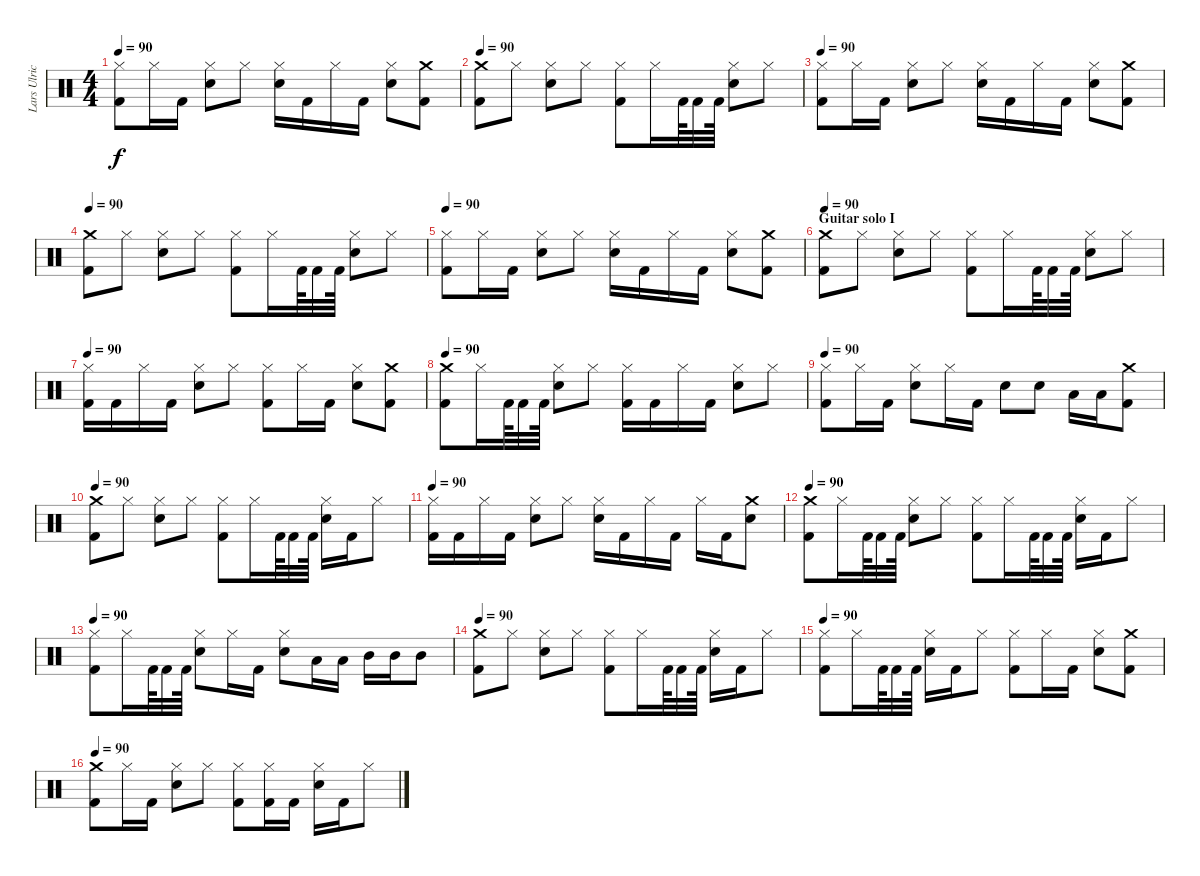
\track ("Lars Ulrich (Drums)" "Lars Ulric") {instrument percussion}
\staff {score}
\articulation defaults
\ts (4 4)
\tempo 90
\clef neutral
\ks c
("Hi-Hat (closed)" "Kick (hit) 2").8{dy f} "Hi-Hat (closed)".16 "Kick (hit) 2".16 ("Snare (hit) 2" "Hi-Hat (closed)").8 "Hi-Hat (closed)".8 ("Snare (hit) 2" "Hi-Hat (closed)").16 "Kick (hit) 2".16 "Hi-Hat (closed)".16 "Kick (hit) 2".16 ("Snare (hit) 2" "Hi-Hat (closed)").8 ("Crash medium (hit)" "Kick (hit) 2").8 |
\tempo 90
("Crash medium (hit)" "Kick (hit) 2").8 "Hi-Hat (closed)".8 ("Snare (hit) 2" "Hi-Hat (closed)").8 "Hi-Hat (closed)".8 ("Hi-Hat (closed)" "Kick (hit) 2").8 "Hi-Hat (closed)".16 "Kick (hit) 2".64 "Kick (hit) 2".32 "Kick (hit) 2".64 ("Snare (hit) 2" "Hi-Hat (closed)").8 "Hi-Hat (closed)".8 |
\tempo 90
("Hi-Hat (closed)" "Kick (hit) 2").8 "Hi-Hat (closed)".16 "Kick (hit) 2".16 ("Snare (hit) 2" "Hi-Hat (closed)").8 "Hi-Hat (closed)".8 ("Snare (hit) 2" "Hi-Hat (closed)").16 "Kick (hit) 2".16 "Hi-Hat (closed)".16 "Kick (hit) 2".16 ("Snare (hit) 2" "Hi-Hat (closed)").8 ("Crash medium (hit)" "Kick (hit) 2").8 |
\tempo 90
("Crash medium (hit)" "Kick (hit) 2").8 "Hi-Hat (closed)".8 ("Snare (hit) 2" "Hi-Hat (closed)").8 "Hi-Hat (closed)".8 ("Hi-Hat (closed)" "Kick (hit) 2").8 "Hi-Hat (closed)".16 "Kick (hit) 2".64 "Kick (hit) 2".32 "Kick (hit) 2".64 ("Snare (hit) 2" "Hi-Hat (closed)").8 "Hi-Hat (closed)".8 |
\tempo 90
("Hi-Hat (closed)" "Kick (hit) 2").8 "Hi-Hat (closed)".16 "Kick (hit) 2".16 ("Snare (hit) 2" "Hi-Hat (closed)").8 "Hi-Hat (closed)".8 ("Snare (hit) 2" "Hi-Hat (closed)").16 "Kick (hit) 2".16 "Hi-Hat (closed)".16 "Kick (hit) 2".16 ("Snare (hit) 2" "Hi-Hat (closed)").8 ("Crash medium (hit)" "Kick (hit) 2").8 |
\section ("" "Guitar solo I")
\tempo 90
("Kick (hit) 2" "Crash medium (hit)").8 "Hi-Hat (closed)".8 ("Snare (hit) 2" "Hi-Hat (closed)").8 "Hi-Hat (closed)".8 ("Hi-Hat (closed)" "Kick (hit) 2").8 "Hi-Hat (closed)".16 "Kick (hit) 2".64 "Kick (hit) 2".32 "Kick (hit) 2".64 ("Snare (hit) 2" "Hi-Hat (closed)").8 "Hi-Hat (closed)".8 |
\tempo 90
("Kick (hit) 2" "Hi-Hat (closed)").16 "Kick (hit) 2".16 "Hi-Hat (closed)".16 "Kick (hit) 2".16 ("Snare (hit) 2" "Hi-Hat (closed)").8 "Hi-Hat (closed)".8 ("Kick (hit) 2" "Hi-Hat (closed)").8 "Hi-Hat (closed)".16 "Kick (hit) 2".16 ("Snare (hit) 2" "Hi-Hat (closed)").8 ("Kick (hit) 2" "Crash medium (hit)").8 |
\tempo 90
("Crash medium (hit)" "Kick (hit) 2").8 "Hi-Hat (closed)".16 "Kick (hit) 2".64 "Kick (hit) 2".32 "Kick (hit) 2".64 ("Snare (hit) 2" "Hi-Hat (closed)").8 "Hi-Hat (closed)".8 ("Kick (hit) 2" "Hi-Hat (closed)").16 "Kick (hit) 2".16 "Hi-Hat (closed)".16 "Kick (hit) 2".16 ("Snare (hit) 2" "Hi-Hat (closed)").8 "Hi-Hat (closed)".8 |
\tempo 90
("Kick (hit) 2" "Hi-Hat (closed)").8 "Hi-Hat (closed)".16 "Kick (hit) 2".16 ("Snare (hit) 2" "Hi-Hat (closed)").8 "Hi-Hat (closed)".16 "Kick (hit) 2".16 "Snare (hit) 2".8 "Snare (hit) 2".8 "Low Tom (hit)".16 "Low Tom (hit)".16 ("Crash medium (hit)" "Kick (hit) 2").8 |
\tempo 90
("Crash medium (hit)" "Kick (hit) 2").8 "Hi-Hat (closed)".8 ("Snare (hit) 2" "Hi-Hat (closed)").8 "Hi-Hat (closed)".8 ("Hi-Hat (closed)" "Kick (hit) 2").8 "Hi-Hat (closed)".16 "Kick (hit) 2".64 "Kick (hit) 2".32 "Kick (hit) 2".64 ("Snare (hit) 2" "Hi-Hat (closed)").16 "Kick (hit) 2".16 "Hi-Hat (closed)".8 |
\tempo 90
("Kick (hit) 2" "Hi-Hat (closed)").16 "Kick (hit) 2".16 "Hi-Hat (closed)".16 "Kick (hit) 2".16 ("Snare (hit) 2" "Hi-Hat (closed)").8 "Hi-Hat (closed)".8 ("Hi-Hat (closed)" "Snare (hit) 2").16 "Kick (hit) 2".16 "Hi-Hat (closed)".16 "Kick (hit) 2".16 "Hi-Hat (closed)".16 "Kick (hit) 2".16 ("Crash medium (hit)" "Snare (hit) 2").8 |
\tempo 90
("Crash medium (hit)" "Kick (hit) 2").8 "Hi-Hat (closed)".16 "Kick (hit) 2".64 "Kick (hit) 2".32 "Kick (hit) 2".64 ("Snare (hit) 2" "Hi-Hat (closed)").8 "Hi-Hat (closed)".8 ("Hi-Hat (closed)" "Kick (hit) 2").8 "Hi-Hat (closed)".16 "Kick (hit) 2".64 "Kick (hit) 2".32 "Kick (hit) 2".64 ("Snare (hit) 2" "Hi-Hat (closed)").16 "Kick (hit) 2".16 "Hi-Hat (closed)".8 |
\tempo 90
("Hi-Hat (closed)" "Kick (hit) 2").8 "Hi-Hat (closed)".16 "Kick (hit) 2".64 "Kick (hit) 2".32 "Kick (hit) 2".64 ("Snare (hit) 2" "Hi-Hat (closed)").8 "Hi-Hat (closed)".16 "Kick (hit) 2".16 ("Snare (hit) 2" "Hi-Hat (closed)").8 "Low Tom (hit)".16 "Low Tom (hit)".16 "Mid Tom (hit)".16 "Mid Tom (hit)".16 "Mid Tom (hit)".8 |
\tempo 90
("Crash medium (hit)" "Kick (hit) 2").8 "Hi-Hat (closed)".8 ("Snare (hit) 2" "Hi-Hat (closed)").8 "Hi-Hat (closed)".8 ("Hi-Hat (closed)" "Kick (hit) 2").8 "Hi-Hat (closed)".16 "Kick (hit) 2".64 "Kick (hit) 2".32 "Kick (hit) 2".64 ("Snare (hit) 2" "Hi-Hat (closed)").16 "Kick (hit) 2".16 "Hi-Hat (closed)".8 |
\tempo 90
("Hi-Hat (closed)" "Kick (hit) 2").8 "Hi-Hat (closed)".16 "Kick (hit) 2".64 "Kick (hit) 2".32 "Kick (hit) 2".64 ("Snare (hit) 2" "Hi-Hat (closed)").16 "Kick (hit) 2".16 "Hi-Hat (closed)".8 ("Hi-Hat (closed)" "Kick (hit) 2").8 "Hi-Hat (closed)".16 "Kick (hit) 2".16 ("Snare (hit) 2" "Hi-Hat (closed)").8 ("Crash medium (hit)" "Kick (hit) 2").8 |
\tempo 90
("Kick (hit) 2" "Crash medium (hit)").8 "Hi-Hat (closed)".16 "Kick (hit) 2".16 ("Snare (hit) 2" "Hi-Hat (closed)").8 "Hi-Hat (closed)".8 ("Hi-Hat (closed)" "Kick (hit) 2").8 ("Hi-Hat (closed)" "Kick (hit) 2").16 "Kick (hit) 2".16 ("Snare (hit) 2" "Hi-Hat (closed)").16 "Kick (hit) 2".16 "Hi-Hat (closed)".8
